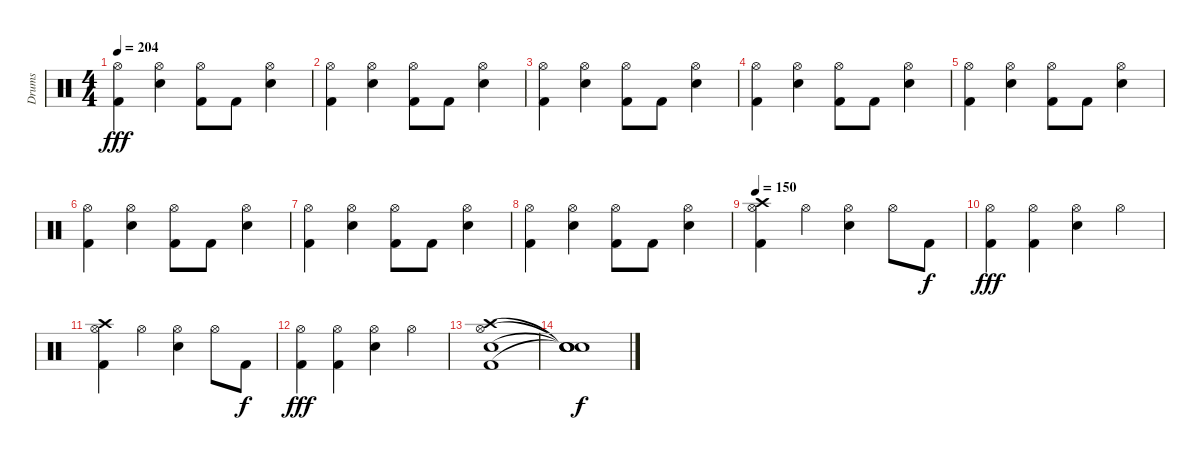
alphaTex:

\track ("Drums" "Drums") {instrument percussion}
\staff {score}
\articulation defaults
\ts (4 4)
\tempo 204
\clef neutral
\ks c
("Hi-Hat (open)" "Kick (hit) 2").4{dy fff} ("Hi-Hat (open)" "Snare (hit) 2").4 ("Hi-Hat (open)" "Kick (hit) 2").8 "Kick (hit) 2".8 ("Hi-Hat (open)" "Snare (hit) 2").4 |
("Hi-Hat (open)" "Kick (hit) 2").4 ("Hi-Hat (open)" "Snare (hit) 2").4 ("Hi-Hat (open)" "Kick (hit) 2").8 "Kick (hit) 2".8 ("Hi-Hat (open)" "Snare (hit) 2").4 |
("Hi-Hat (open)" "Kick (hit) 2").4 ("Hi-Hat (open)" "Snare (hit) 2").4 ("Hi-Hat (open)" "Kick (hit) 2").8 "Kick (hit) 2".8 ("Hi-Hat (open)" "Snare (hit) 2").4 |
("Hi-Hat (open)" "Kick (hit) 2").4 ("Hi-Hat (open)" "Snare (hit) 2").4 ("Hi-Hat (open)" "Kick (hit) 2").8 "Kick (hit) 2".8 ("Hi-Hat (open)" "Snare (hit) 2").4 |
("Hi-Hat (open)" "Kick (hit) 2").4 ("Hi-Hat (open)" "Snare (hit) 2").4 ("Hi-Hat (open)" "Kick (hit) 2").8 "Kick (hit) 2".8 ("Hi-Hat (open)" "Snare (hit) 2").4 |
("Hi-Hat (open)" "Kick (hit) 2").4 ("Hi-Hat (open)" "Snare (hit) 2").4 ("Hi-Hat (open)" "Kick (hit) 2").8 "Kick (hit) 2".8 ("Hi-Hat (open)" "Snare (hit) 2").4 |
("Hi-Hat (open)" "Kick (hit) 2").4 ("Hi-Hat (open)" "Snare (hit) 2").4 ("Hi-Hat (open)" "Kick (hit) 2").8 "Kick (hit) 2".8 ("Hi-Hat (open)" "Snare (hit) 2").4 |
("Hi-Hat (open)" "Kick (hit) 2").4 ("Hi-Hat (open)" "Snare (hit) 2").4 ("Hi-Hat (open)" "Kick (hit) 2").8 "Kick (hit) 2".8 ("Hi-Hat (open)" "Snare (hit) 2").4 |
\tempo 150
("Hi-Hat (open)" "Kick (hit) 2" "Crash high (hit)").4 "Hi-Hat (open)".4 ("Hi-Hat (open)" "Snare (hit) 2").4 "Hi-Hat (open)".8 "Kick (hit) 2".8{dy f} |
("Hi-Hat (open)" "Kick (hit) 2").4{dy fff} ("Hi-Hat (open)" "Kick (hit) 2").4 ("Hi-Hat (open)" "Snare (hit) 2").4 "Hi-Hat (open)".4 |
("Hi-Hat (open)" "Kick (hit) 2" "Crash high (hit)").4 "Hi-Hat (open)".4 ("Hi-Hat (open)" "Snare (hit) 2").4 "Hi-Hat (open)".8 "Kick (hit) 2".8{dy f} |
("Hi-Hat (open)" "Kick (hit) 2").4{dy fff} ("Hi-Hat (open)" "Kick (hit) 2").4 ("Hi-Hat (open)" "Snare (hit) 2").4 "Hi-Hat (open)".4 |
("Kick (hit) 2" "Snare (hit) 2" "Hi-Hat (open)" "Crash high (hit)").1 |
("Snare (hit)"{t} "Snare (hit)"{t} "Snare (hit)"{t} "Snare (hit)"{t}).1{dy f}
